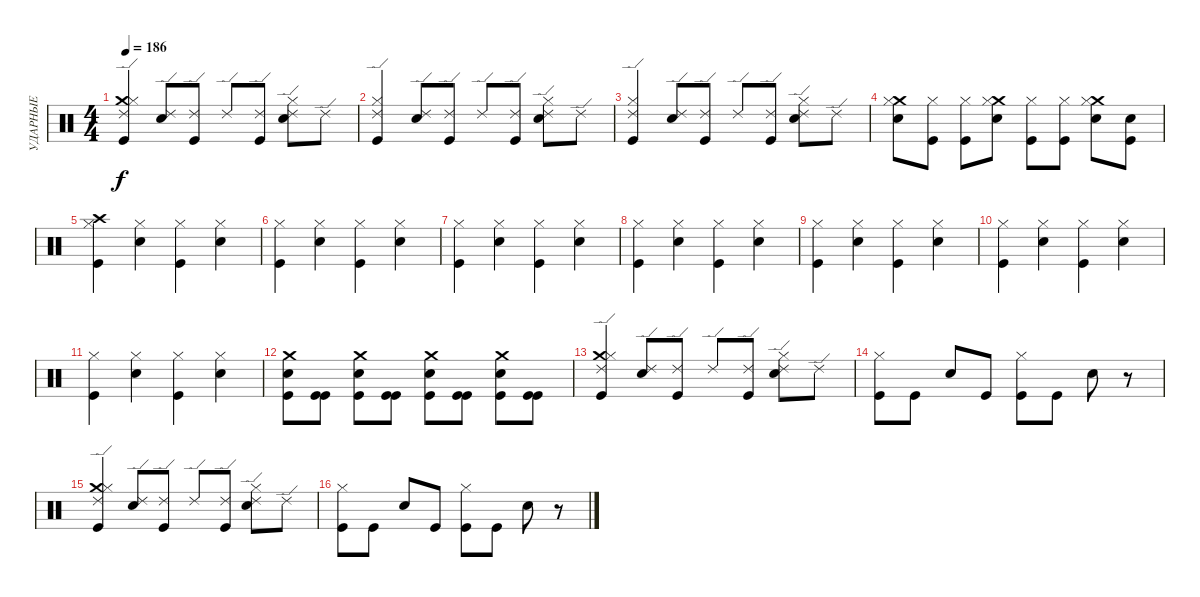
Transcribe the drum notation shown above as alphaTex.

\track ("УДАРНЫЕ" "УДАРНЫЕ") {instrument percussion}
\staff {score}
\articulation defaults
\ts (4 4)
\tempo 186
\clef neutral
\ks c
("Ride (edge) 2" "Crash medium (hit)" "Hi-Hat (closed)" "Kick (hit)").4{dy f} ("Ride (edge) 2" "Electric Snare (hit)").8 ("Ride (edge) 2" "Kick (hit)").8 "Ride (edge) 2".8 ("Ride (edge) 2" "Kick (hit)").8 ("Ride (edge) 2" "Hi-Hat (closed)" "Electric Snare (hit)").8 "Ride (edge) 2".8 |
("Ride (edge) 2" "Hi-Hat (closed)" "Kick (hit)").4 ("Ride (edge) 2" "Electric Snare (hit)").8 ("Ride (edge) 2" "Kick (hit)").8 "Ride (edge) 2".8 ("Ride (edge) 2" "Kick (hit)").8 ("Ride (edge) 2" "Hi-Hat (closed)" "Electric Snare (hit)").8 "Ride (edge) 2".8 |
("Ride (edge) 2" "Hi-Hat (closed)" "Kick (hit)").4 ("Ride (edge) 2" "Electric Snare (hit)").8 ("Ride (edge) 2" "Kick (hit)").8 "Ride (edge) 2".8 ("Ride (edge) 2" "Kick (hit)").8 ("Ride (edge) 2" "Hi-Hat (closed)" "Electric Snare (hit)").8 "Ride (edge) 2".8 |
("Crash medium (hit)" "Hi-Hat (closed)" "Electric Snare (hit)").8 ("Hi-Hat (closed)" "Kick (hit)").8 ("Hi-Hat (closed)" "Kick (hit)").8 ("Crash medium (hit)" "Hi-Hat (closed)" "Electric Snare (hit)").8 ("Hi-Hat (closed)" "Kick (hit)").8 ("Hi-Hat (closed)" "Kick (hit)").8 ("Crash medium (hit)" "Hi-Hat (closed)" "Electric Snare (hit)").8 ("Snare (hit)" "Kick (hit)").8 |
("Hi-Hat (closed)" "Kick (hit)" "Crash high (hit)").4 ("Hi-Hat (closed)" "Electric Snare (hit)").4 ("Hi-Hat (closed)" "Kick (hit)").4 ("Hi-Hat (closed)" "Electric Snare (hit)").4 |
("Hi-Hat (closed)" "Kick (hit)").4 ("Hi-Hat (closed)" "Electric Snare (hit)").4 ("Hi-Hat (closed)" "Kick (hit)").4 ("Hi-Hat (closed)" "Electric Snare (hit)").4 |
("Hi-Hat (closed)" "Kick (hit)").4 ("Hi-Hat (closed)" "Electric Snare (hit)").4 ("Hi-Hat (closed)" "Kick (hit)").4 ("Hi-Hat (closed)" "Electric Snare (hit)").4 |
("Hi-Hat (closed)" "Kick (hit)").4 ("Hi-Hat (closed)" "Electric Snare (hit)").4 ("Hi-Hat (closed)" "Kick (hit)").4 ("Hi-Hat (closed)" "Electric Snare (hit)").4 |
("Hi-Hat (closed)" "Kick (hit)").4 ("Hi-Hat (closed)" "Electric Snare (hit)").4 ("Hi-Hat (closed)" "Kick (hit)").4 ("Hi-Hat (closed)" "Electric Snare (hit)").4 |
("Hi-Hat (closed)" "Kick (hit)").4 ("Hi-Hat (closed)" "Electric Snare (hit)").4 ("Hi-Hat (closed)" "Kick (hit)").4 ("Hi-Hat (closed)" "Electric Snare (hit)").4 |
("Hi-Hat (closed)" "Kick (hit)").4 ("Hi-Hat (closed)" "Electric Snare (hit)").4 ("Hi-Hat (closed)" "Kick (hit)").4 ("Hi-Hat (closed)" "Electric Snare (hit)").4 |
("Electric Snare (hit)" "Crash medium (hit)" "Kick (hit)").8 ("Kick (hit)" "Kick (hit)").8 ("Electric Snare (hit)" "Crash medium (hit)" "Kick (hit)").8 ("Kick (hit)" "Kick (hit)").8 ("Electric Snare (hit)" "Crash medium (hit)" "Kick (hit)").8 ("Kick (hit)" "Kick (hit)").8 ("Electric Snare (hit)" "Crash medium (hit)" "Kick (hit)").8 ("Kick (hit)" "Kick (hit)").8 |
("Ride (edge) 2" "Crash medium (hit)" "Hi-Hat (closed)" "Kick (hit)").4 ("Ride (edge) 2" "Electric Snare (hit)").8 ("Ride (edge) 2" "Kick (hit)").8 "Ride (edge) 2".8 ("Ride (edge) 2" "Kick (hit)").8 ("Ride (edge) 2" "Hi-Hat (closed)" "Electric Snare (hit)").8 "Ride (edge) 2".8 |
("Hi-Hat (closed)" "Kick (hit)").8 "Kick (hit)".8 "Electric Snare (hit)".8 "Kick (hit)".8 ("Hi-Hat (closed)" "Kick (hit)").8 "Kick (hit)".8 "Electric Snare (hit)".8 r.8 |
("Ride (edge) 2" "Crash medium (hit)" "Hi-Hat (closed)" "Kick (hit)").4 ("Ride (edge) 2" "Electric Snare (hit)").8 ("Ride (edge) 2" "Kick (hit)").8 "Ride (edge) 2".8 ("Ride (edge) 2" "Kick (hit)").8 ("Ride (edge) 2" "Hi-Hat (closed)" "Electric Snare (hit)").8 "Ride (edge) 2".8 |
("Hi-Hat (closed)" "Kick (hit)").8 "Kick (hit)".8 "Electric Snare (hit)".8 "Kick (hit)".8 ("Hi-Hat (closed)" "Kick (hit)").8 "Kick (hit)".8 "Electric Snare (hit)".8 r.8
